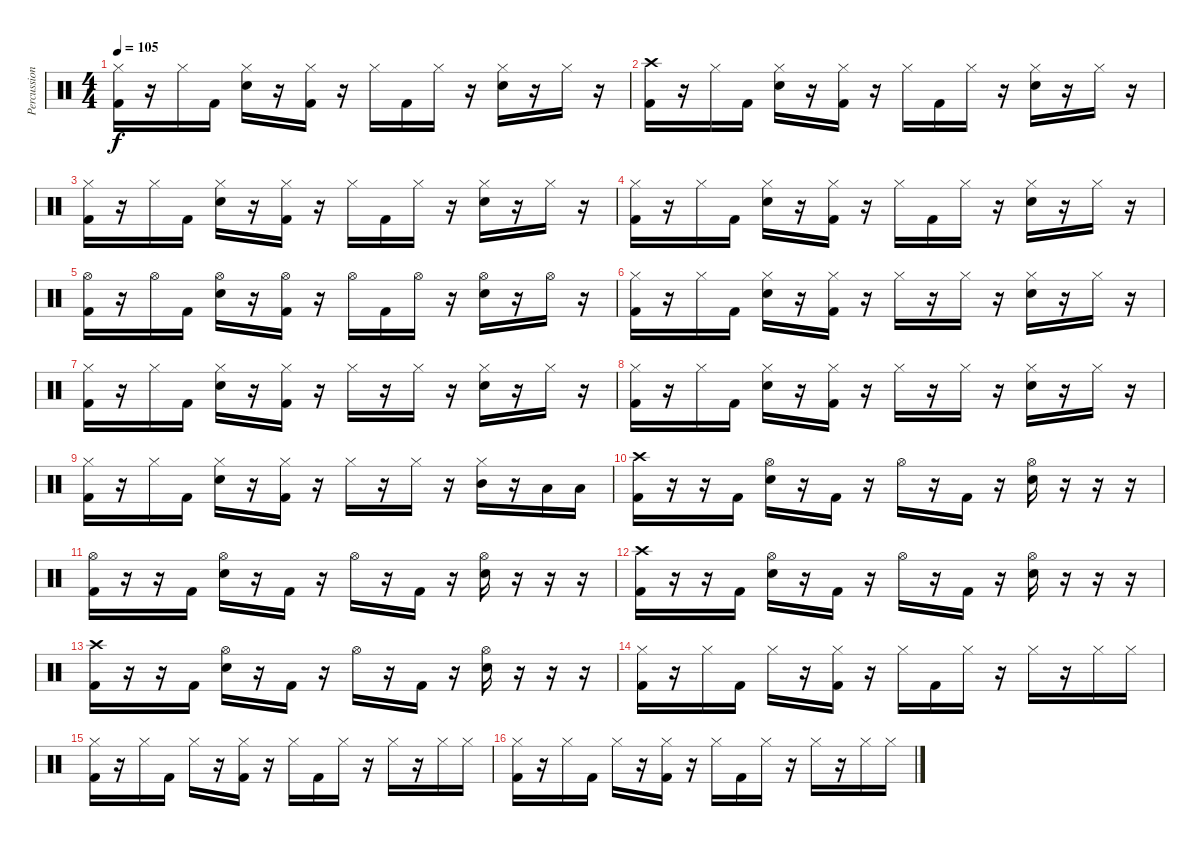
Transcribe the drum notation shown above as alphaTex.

\track ("Percussion" "Percussion") {instrument percussion}
\staff {score}
\articulation defaults
\ts (4 4)
\tempo 105
\clef neutral
\ks c
("Hi-Hat (closed)" "Kick (hit) 2").16{dy f} r.16 "Hi-Hat (closed)".16 "Kick (hit) 2".16 ("Hi-Hat (closed)" "Snare (hit) 2").16 r.16 ("Hi-Hat (closed)" "Kick (hit) 2").16 r.16 "Hi-Hat (closed)".16 "Kick (hit) 2".16 "Hi-Hat (closed)".16 r.16 ("Hi-Hat (closed)" "Snare (hit) 2").16 r.16 "Hi-Hat (closed)".16 r.16 |
("Crash high (hit)" "Kick (hit) 2").16 r.16 "Hi-Hat (closed)".16 "Kick (hit) 2".16 ("Hi-Hat (closed)" "Snare (hit) 2").16 r.16 ("Hi-Hat (closed)" "Kick (hit) 2").16 r.16 "Hi-Hat (closed)".16 "Kick (hit) 2".16 "Hi-Hat (closed)".16 r.16 ("Hi-Hat (closed)" "Snare (hit) 2").16 r.16 "Hi-Hat (closed)".16 r.16 |
("Hi-Hat (closed)" "Kick (hit) 2").16 r.16 "Hi-Hat (closed)".16 "Kick (hit) 2".16 ("Hi-Hat (closed)" "Snare (hit) 2").16 r.16 ("Hi-Hat (closed)" "Kick (hit) 2").16 r.16 "Hi-Hat (closed)".16 "Kick (hit) 2".16 "Hi-Hat (closed)".16 r.16 ("Hi-Hat (closed)" "Snare (hit) 2").16 r.16 "Hi-Hat (closed)".16 r.16 |
("Hi-Hat (closed)" "Kick (hit) 2").16 r.16 "Hi-Hat (closed)".16 "Kick (hit) 2".16 ("Hi-Hat (closed)" "Snare (hit) 2").16 r.16 ("Hi-Hat (closed)" "Kick (hit) 2").16 r.16 "Hi-Hat (closed)".16 "Kick (hit) 2".16 "Hi-Hat (closed)".16 r.16 ("Hi-Hat (closed)" "Snare (hit) 2").16 r.16 "Hi-Hat (closed)".16 r.16 |
("Hi-Hat (open)" "Kick (hit) 2").16 r.16 "Hi-Hat (open)".16 "Kick (hit) 2".16 ("Hi-Hat (open)" "Snare (hit) 2").16 r.16 ("Hi-Hat (open)" "Kick (hit) 2").16 r.16 "Hi-Hat (open)".16 "Kick (hit) 2".16 "Hi-Hat (open)".16 r.16 ("Hi-Hat (open)" "Snare (hit) 2").16 r.16 "Hi-Hat (open)".16 r.16 |
("Hi-Hat (closed)" "Kick (hit) 2").16 r.16 "Hi-Hat (closed)".16 "Kick (hit) 2".16 ("Hi-Hat (closed)" "Snare (hit) 2").16 r.16 ("Hi-Hat (closed)" "Kick (hit) 2").16 r.16 "Hi-Hat (closed)".16 r.16 "Hi-Hat (closed)".16 r.16 ("Hi-Hat (closed)" "Snare (hit) 2").16 r.16 "Hi-Hat (closed)".16 r.16 |
("Hi-Hat (closed)" "Kick (hit) 2").16 r.16 "Hi-Hat (closed)".16 "Kick (hit) 2".16 ("Hi-Hat (closed)" "Snare (hit) 2").16 r.16 ("Hi-Hat (closed)" "Kick (hit) 2").16 r.16 "Hi-Hat (closed)".16 r.16 "Hi-Hat (closed)".16 r.16 ("Hi-Hat (closed)" "Snare (hit) 2").16 r.16 "Hi-Hat (closed)".16 r.16 |
("Hi-Hat (closed)" "Kick (hit) 2").16 r.16 "Hi-Hat (closed)".16 "Kick (hit) 2".16 ("Hi-Hat (closed)" "Snare (hit) 2").16 r.16 ("Hi-Hat (closed)" "Kick (hit) 2").16 r.16 "Hi-Hat (closed)".16 r.16 "Hi-Hat (closed)".16 r.16 ("Hi-Hat (closed)" "Snare (hit) 2").16 r.16 "Hi-Hat (closed)".16 r.16 |
("Hi-Hat (closed)" "Kick (hit) 2").16 r.16 "Hi-Hat (closed)".16 "Kick (hit) 2".16 ("Hi-Hat (closed)" "Snare (hit) 2").16 r.16 ("Hi-Hat (closed)" "Kick (hit) 2").16 r.16 "Hi-Hat (closed)".16 r.16 "Hi-Hat (closed)".16 r.16 ("Hi-Hat (closed)" "Mid Tom (hit)").16 r.16 "Low Floor Tom (hit)".16 "Low Floor Tom (hit)".16 |
("Crash high (hit)" "Kick (hit) 2").16 r.16 r.16 "Kick (hit) 2".16 ("Hi-Hat (open)" "Snare (hit) 2").16 r.16 "Kick (hit) 2".16 r.16 "Hi-Hat (open)".16 r.16 "Kick (hit) 2".16 r.16 ("Hi-Hat (open)" "Snare (hit) 2").16 r.16 r.16 r.16 |
("Hi-Hat (open)" "Kick (hit) 2").16 r.16 r.16 "Kick (hit) 2".16 ("Hi-Hat (open)" "Snare (hit) 2").16 r.16 "Kick (hit) 2".16 r.16 "Hi-Hat (open)".16 r.16 "Kick (hit) 2".16 r.16 ("Hi-Hat (open)" "Snare (hit) 2").16 r.16 r.16 r.16 |
("Crash high (hit)" "Kick (hit) 2").16 r.16 r.16 "Kick (hit) 2".16 ("Hi-Hat (open)" "Snare (hit) 2").16 r.16 "Kick (hit) 2".16 r.16 "Hi-Hat (open)".16 r.16 "Kick (hit) 2".16 r.16 ("Hi-Hat (open)" "Snare (hit) 2").16 r.16 r.16 r.16 |
("Crash high (hit)" "Kick (hit) 2").16 r.16 r.16 "Kick (hit) 2".16 ("Hi-Hat (open)" "Snare (hit) 2").16 r.16 "Kick (hit) 2".16 r.16 "Hi-Hat (open)".16 r.16 "Kick (hit) 2".16 r.16 ("Hi-Hat (open)" "Snare (hit) 2").16 r.16 r.16 r.16 |
("Hi-Hat (closed)" "Kick (hit) 2").16 r.16 "Hi-Hat (closed)".16 "Kick (hit) 2".16 "Hi-Hat (closed)".16 r.16 ("Hi-Hat (closed)" "Kick (hit) 2").16 r.16 "Hi-Hat (closed)".16 "Kick (hit) 2".16 "Hi-Hat (closed)".16 r.16 "Hi-Hat (closed)".16 r.16 "Hi-Hat (closed)".16 "Hi-Hat (closed)".16 |
("Hi-Hat (closed)" "Kick (hit) 2").16 r.16 "Hi-Hat (closed)".16 "Kick (hit) 2".16 "Hi-Hat (closed)".16 r.16 ("Hi-Hat (closed)" "Kick (hit) 2").16 r.16 "Hi-Hat (closed)".16 "Kick (hit) 2".16 "Hi-Hat (closed)".16 r.16 "Hi-Hat (closed)".16 r.16 "Hi-Hat (closed)".16 "Hi-Hat (closed)".16 |
("Hi-Hat (closed)" "Kick (hit) 2").16 r.16 "Hi-Hat (closed)".16 "Kick (hit) 2".16 "Hi-Hat (closed)".16 r.16 ("Hi-Hat (closed)" "Kick (hit) 2").16 r.16 "Hi-Hat (closed)".16 "Kick (hit) 2".16 "Hi-Hat (closed)".16 r.16 "Hi-Hat (closed)".16 r.16 "Hi-Hat (closed)".16 "Hi-Hat (closed)".16
